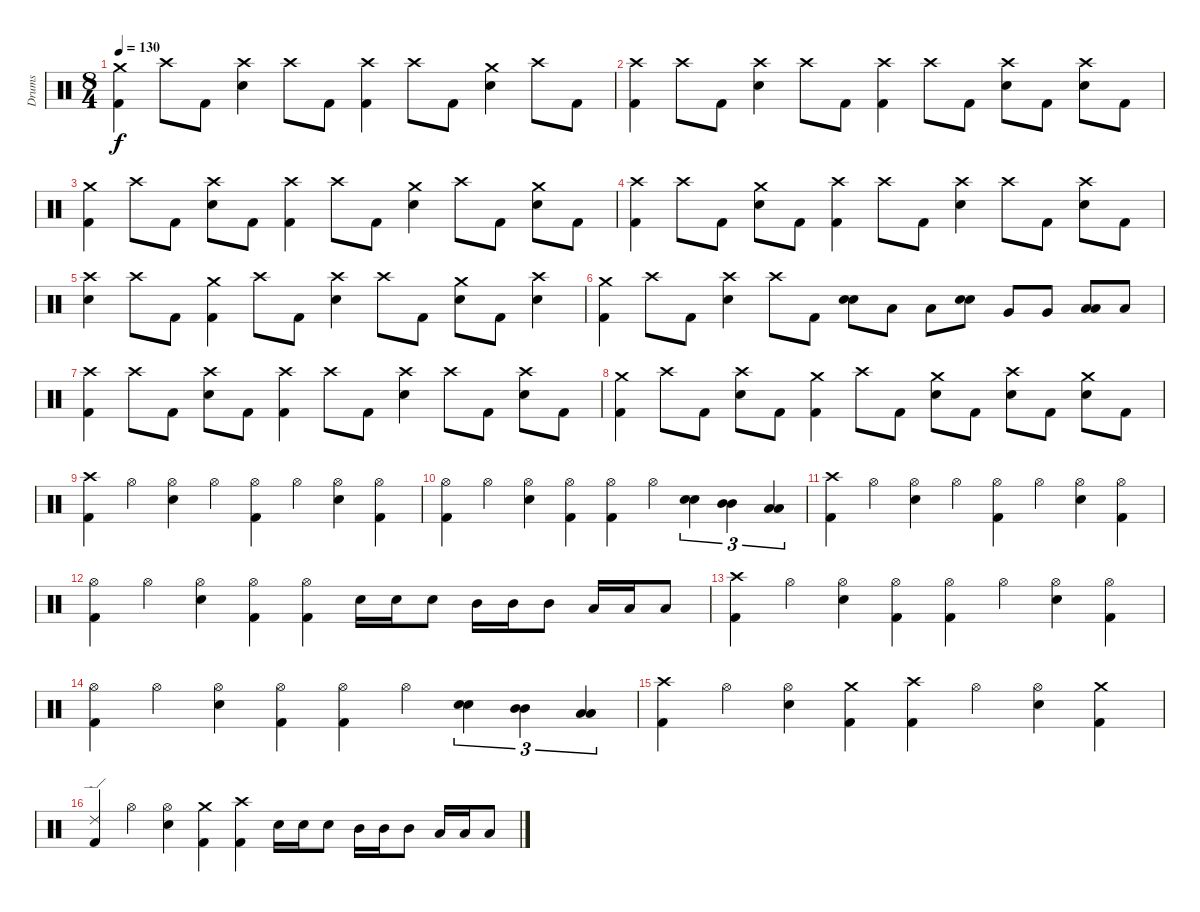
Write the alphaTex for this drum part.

\track ("Drums" "Drums") {instrument percussion}
\staff {score}
\articulation defaults
\ts (8 4)
\tempo 130
\clef neutral
\ks c
("Crash medium (hit)" "Kick (hit) 2").4{dy f} "Crash high (hit)".8 "Kick (hit) 2".8 ("Crash high (hit)" "Electric Snare (hit)").4 "Crash high (hit)".8 "Kick (hit) 2".8 ("Crash high (hit)" "Kick (hit) 2").4 "Crash high (hit)".8 "Kick (hit) 2".8 ("Crash medium (hit)" "Electric Snare (hit)").4 "Crash high (hit)".8 "Kick (hit) 2".8 |
("Crash high (hit)" "Kick (hit) 2").4 "Crash high (hit)".8 "Kick (hit) 2".8 ("Crash high (hit)" "Electric Snare (hit)").4 "Crash high (hit)".8 "Kick (hit) 2".8 ("Crash high (hit)" "Kick (hit) 2").4 "Crash high (hit)".8 "Kick (hit) 2".8 ("Crash high (hit)" "Electric Snare (hit)").8 "Kick (hit) 2".8 ("Crash high (hit)" "Electric Snare (hit)").8 "Kick (hit) 2".8 |
("Crash medium (hit)" "Kick (hit) 2").4 "Crash high (hit)".8 "Kick (hit) 2".8 ("Crash high (hit)" "Electric Snare (hit)").8 "Kick (hit) 2".8 ("Crash high (hit)" "Kick (hit) 2").4 "Crash high (hit)".8 "Kick (hit) 2".8 ("Crash medium (hit)" "Electric Snare (hit)").4 "Crash high (hit)".8 "Kick (hit) 2".8 ("Crash medium (hit)" "Electric Snare (hit)").8 "Kick (hit) 2".8 |
("Crash high (hit)" "Kick (hit) 2").4 "Crash high (hit)".8 "Kick (hit) 2".8 ("Crash medium (hit)" "Electric Snare (hit)").8 "Kick (hit) 2".8 ("Crash high (hit)" "Kick (hit) 2").4 "Crash high (hit)".8 "Kick (hit) 2".8 ("Crash high (hit)" "Electric Snare (hit)").4 "Crash high (hit)".8 "Kick (hit) 2".8 ("Crash high (hit)" "Electric Snare (hit)").8 "Kick (hit) 2".8 |
("Crash high (hit)" "Electric Snare (hit)").4 "Crash high (hit)".8 "Kick (hit) 2".8 ("Crash medium (hit)" "Kick (hit) 2").4 "Crash high (hit)".8 "Kick (hit) 2".8 ("Crash high (hit)" "Electric Snare (hit)").4 "Crash high (hit)".8 "Kick (hit) 2".8 ("Crash medium (hit)" "Electric Snare (hit)").8 "Kick (hit) 2".8 ("Crash high (hit)" "Electric Snare (hit)").4 |
("Crash medium (hit)" "Kick (hit) 2").4 "Crash high (hit)".8 "Kick (hit) 2".8 ("Crash high (hit)" "Electric Snare (hit)").4 "Crash high (hit)".8 "Kick (hit) 2".8 ("Electric Snare (hit)" "Electric Snare (hit)").8{bu 60} "Low Tom (hit)".8 "Low Tom (hit)".8 ("Electric Snare (hit)" "Electric Snare (hit)").8{bu 60} "Very Low Tom (hit)".8 "Very Low Tom (hit)".8 ("Low Floor Tom (hit)" "Low Floor Tom (hit)").8{bu 60} "Low Floor Tom (hit)".8 |
("Crash high (hit)" "Kick (hit) 2").4 "Crash high (hit)".8 "Kick (hit) 2".8 ("Crash high (hit)" "Electric Snare (hit)").8 "Kick (hit) 2".8 ("Crash high (hit)" "Kick (hit) 2").4 "Crash high (hit)".8 "Kick (hit) 2".8 ("Crash high (hit)" "Electric Snare (hit)").4 "Crash high (hit)".8 "Kick (hit) 2".8 ("Crash high (hit)" "Electric Snare (hit)").8 "Kick (hit) 2".8 |
("Crash medium (hit)" "Kick (hit) 2").4 "Crash high (hit)".8 "Kick (hit) 2".8 ("Crash high (hit)" "Electric Snare (hit)").8 "Kick (hit) 2".8 ("Crash medium (hit)" "Kick (hit) 2").4 "Crash high (hit)".8 "Kick (hit) 2".8 ("Crash medium (hit)" "Electric Snare (hit)").8 "Kick (hit) 2".8 ("Crash high (hit)" "Electric Snare (hit)").8 "Kick (hit) 2".8 ("Crash medium (hit)" "Electric Snare (hit)").8 "Kick (hit) 2".8 |
("Crash high (hit)" "Kick (hit) 2").4 "Hi-Hat (open)".4 ("Hi-Hat (open)" "Electric Snare (hit)").4 "Hi-Hat (open)".4 ("Hi-Hat (open)" "Kick (hit) 2").4 "Hi-Hat (open)".4 ("Hi-Hat (open)" "Electric Snare (hit)").4 ("Hi-Hat (open)" "Kick (hit) 2").4 |
("Hi-Hat (open)" "Kick (hit) 2").4 "Hi-Hat (open)".4 ("Hi-Hat (open)" "Electric Snare (hit)").4 ("Hi-Hat (open)" "Kick (hit) 2").4 ("Hi-Hat (open)" "Kick (hit) 2").4 "Hi-Hat (open)".4 ("Electric Snare (hit)" "Electric Snare (hit)").4{tu (3 2) bu 60} ("Mid Tom (hit)" "Mid Tom (hit)").4{tu (3 2) bu 60} ("Low Tom (hit)" "Low Tom (hit)").4{tu (3 2) bu 60} |
("Crash high (hit)" "Kick (hit) 2").4 "Hi-Hat (open)".4 ("Hi-Hat (open)" "Electric Snare (hit)").4 "Hi-Hat (open)".4 ("Hi-Hat (open)" "Kick (hit) 2").4 "Hi-Hat (open)".4 ("Hi-Hat (open)" "Electric Snare (hit)").4 ("Hi-Hat (open)" "Kick (hit) 2").4 |
("Hi-Hat (open)" "Kick (hit) 2").4 "Hi-Hat (open)".4 ("Hi-Hat (open)" "Electric Snare (hit)").4 ("Hi-Hat (open)" "Kick (hit) 2").4 ("Hi-Hat (open)" "Kick (hit) 2").4 "Electric Snare (hit)".16 "Electric Snare (hit)".16 "Electric Snare (hit)".8 "Mid Tom (hit)".16 "Mid Tom (hit)".16 "Mid Tom (hit)".8 "Low Tom (hit)".16 "Low Tom (hit)".16 "Low Tom (hit)".8 |
("Crash high (hit)" "Kick (hit) 2").4 "Hi-Hat (open)".4 ("Hi-Hat (open)" "Electric Snare (hit)").4 ("Hi-Hat (open)" "Kick (hit) 2").4 ("Hi-Hat (open)" "Kick (hit) 2").4 "Hi-Hat (open)".4 ("Hi-Hat (open)" "Electric Snare (hit)").4 ("Hi-Hat (open)" "Kick (hit) 2").4 |
("Hi-Hat (open)" "Kick (hit) 2").4 "Hi-Hat (open)".4 ("Hi-Hat (open)" "Electric Snare (hit)").4 ("Hi-Hat (open)" "Kick (hit) 2").4 ("Hi-Hat (open)" "Kick (hit) 2").4 "Hi-Hat (open)".4 ("Electric Snare (hit)" "Electric Snare (hit)").4{tu (3 2) bu 60} ("Mid Tom (hit)" "Mid Tom (hit)").4{tu (3 2) bu 60} ("Low Tom (hit)" "Low Tom (hit)").4{tu (3 2) bu 60} |
("Crash high (hit)" "Kick (hit) 2").4 "Hi-Hat (open)".4 ("Hi-Hat (open)" "Electric Snare (hit)").4 ("Crash medium (hit)" "Kick (hit) 2").4 ("Crash high (hit)" "Kick (hit) 2").4 "Hi-Hat (open)".4 ("Hi-Hat (open)" "Electric Snare (hit)").4 ("Crash medium (hit)" "Kick (hit) 2").4 |
("Ride (edge) 2" "Kick (hit) 2").4 "Hi-Hat (open)".4 ("Hi-Hat (open)" "Electric Snare (hit)").4 ("Crash medium (hit)" "Kick (hit) 2").4 ("Crash high (hit)" "Kick (hit) 2").4 "Electric Snare (hit)".16 "Electric Snare (hit)".16 "Electric Snare (hit)".8 "Mid Tom (hit)".16 "Mid Tom (hit)".16 "Mid Tom (hit)".8 "Low Tom (hit)".16 "Low Tom (hit)".16 "Low Tom (hit)".8
